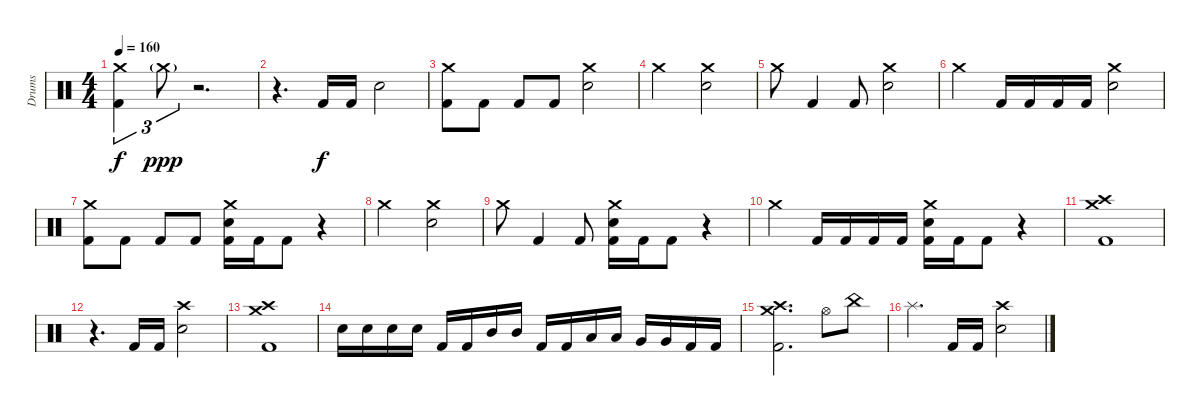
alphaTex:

\track ("Drums" "Drums") {instrument percussion}
\staff
\articulation defaults
\ts (4 4)
\section ("" "")
\tempo 160
\clef neutral
\ks c
("Crash medium (hit)" "Kick (hit) 2").4{tu (3 2) dy f} "Crash medium (hit)"{g}.8{tu (3 2) dy ppp} r.2{d} |
r.4{d} "Kick (hit) 2".16{dy f} "Kick (hit) 2".16 "Electric Snare (hit)".2 |
("Crash medium (hit)" "Kick (hit) 2").8 "Kick (hit) 2".8 "Kick (hit) 2".8 "Kick (hit) 2".8 ("Crash medium (hit)" "Electric Snare (hit)").2 |
"Crash medium (hit)".2 ("Crash medium (hit)" "Electric Snare (hit)").2 |
"Crash medium (hit)".8 "Kick (hit) 2".4 "Kick (hit) 2".8 ("Crash medium (hit)" "Electric Snare (hit)").2 |
"Crash medium (hit)".4 "Kick (hit) 2".16 "Kick (hit) 2".16 "Kick (hit) 2".16 "Kick (hit) 2".16 ("Crash medium (hit)" "Electric Snare (hit)").2 |
("Crash medium (hit)" "Kick (hit) 2").8 "Kick (hit) 2".8 "Kick (hit) 2".8 "Kick (hit) 2".8 ("Crash medium (hit)" "Electric Snare (hit)" "Kick (hit) 2").16 "Kick (hit) 2".16 "Kick (hit) 2".8 r.4 |
"Crash medium (hit)".2 ("Crash medium (hit)" "Electric Snare (hit)").2 |
"Crash medium (hit)".8 "Kick (hit) 2".4 "Kick (hit) 2".8 ("Crash medium (hit)" "Electric Snare (hit)" "Kick (hit) 2").16 "Kick (hit) 2".16 "Kick (hit) 2".8 r.4 |
"Crash medium (hit)".4 "Kick (hit) 2".16 "Kick (hit) 2".16 "Kick (hit) 2".16 "Kick (hit) 2".16 ("Crash medium (hit)" "Electric Snare (hit)" "Kick (hit) 2").16 "Kick (hit) 2".16 "Kick (hit) 2".8 r.4 |
("Crash medium (hit)" "Crash high (hit)" "Kick (hit) 2").1 |
r.4{d} "Kick (hit) 2".16 "Kick (hit) 2".16 ("Crash high (hit)" "Electric Snare (hit)").2 |
("Crash medium (hit)" "Crash high (hit)" "Kick (hit) 2").1 |
"Electric Snare (hit)".16 "Electric Snare (hit)".16 "Electric Snare (hit)".16 "Electric Snare (hit)".16 "Kick (hit) 2".16 "Kick (hit) 2".16 "Mid Tom (hit)".16 "Mid Tom (hit)".16 "Kick (hit) 2".16 "Kick (hit) 2".16 "Low Tom (hit)".16 "Low Tom (hit)".16 "Very Low Tom (hit)".16 "Very Low Tom (hit)".16 "Kick (hit) 2".16 "Kick (hit) 2".16 |
("Crash medium (hit)" "Crash high (hit)" "Kick (hit) 2").2{d} "Hi-Hat (open)".8 "China (hit)".8 |
"Splash (hit)".4{d} "Kick (hit) 2".16 "Kick (hit) 2".16 ("Crash high (hit)" "Electric Snare (hit)").2
